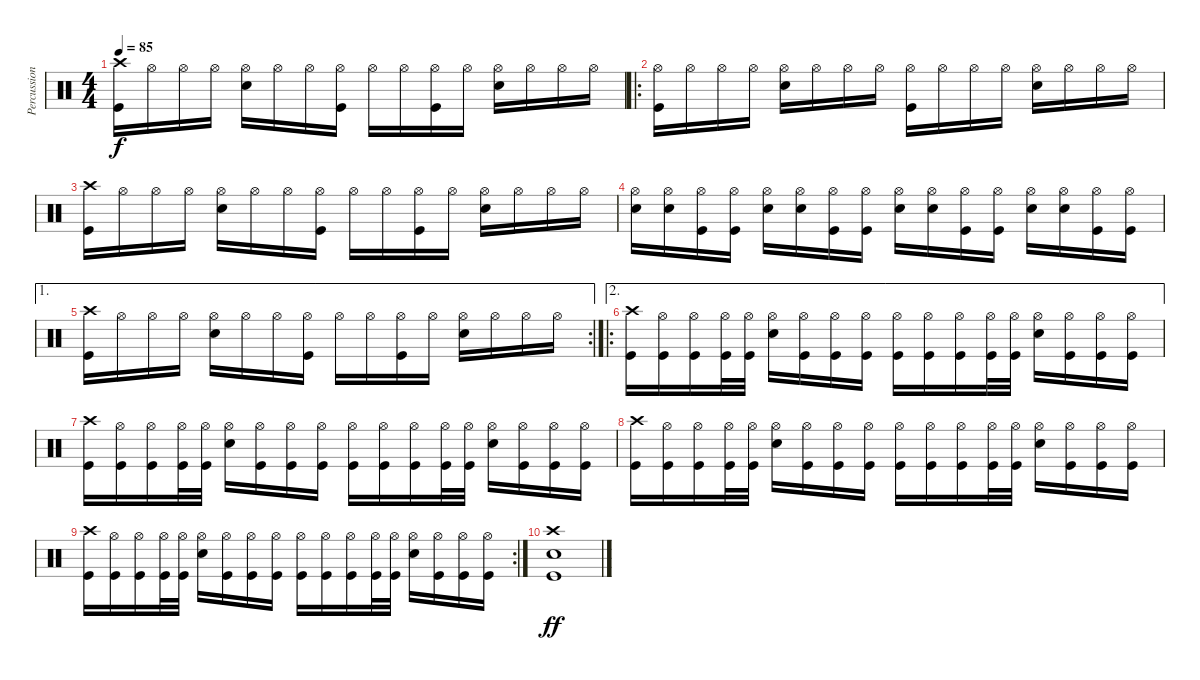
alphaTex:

\track ("Percussion" "Percussion") {instrument percussion}
\staff {score}
\articulation defaults
\ts (4 4)
\tempo 85
\clef neutral
\ks c
("Crash high (hit)" "Kick (hit)").16{dy f} "Hi-Hat (open)".16 "Hi-Hat (open)".16 "Hi-Hat (open)".16 ("Hi-Hat (open)" "Snare (hit) 2").16 "Hi-Hat (open)".16 "Hi-Hat (open)".16 ("Hi-Hat (open)" "Kick (hit)").16 "Hi-Hat (open)".16 "Hi-Hat (open)".16 ("Hi-Hat (open)" "Kick (hit)").16 "Hi-Hat (open)".16 ("Hi-Hat (open)" "Snare (hit) 2").16 "Hi-Hat (open)".16 "Hi-Hat (open)".16 "Hi-Hat (open)".16 |
\ro
("Hi-Hat (open)" "Kick (hit)").16 "Hi-Hat (open)".16 "Hi-Hat (open)".16 "Hi-Hat (open)".16 ("Hi-Hat (open)" "Snare (hit) 2").16 "Hi-Hat (open)".16 "Hi-Hat (open)".16 "Hi-Hat (open)".16 ("Hi-Hat (open)" "Kick (hit)").16 "Hi-Hat (open)".16 "Hi-Hat (open)".16 "Hi-Hat (open)".16 ("Hi-Hat (open)" "Snare (hit) 2").16 "Hi-Hat (open)".16 "Hi-Hat (open)".16 "Hi-Hat (open)".16 |
("Crash high (hit)" "Kick (hit)").16 "Hi-Hat (open)".16 "Hi-Hat (open)".16 "Hi-Hat (open)".16 ("Hi-Hat (open)" "Snare (hit) 2").16 "Hi-Hat (open)".16 "Hi-Hat (open)".16 ("Hi-Hat (open)" "Kick (hit)").16 "Hi-Hat (open)".16 "Hi-Hat (open)".16 ("Hi-Hat (open)" "Kick (hit)").16 "Hi-Hat (open)".16 ("Hi-Hat (open)" "Snare (hit) 2").16 "Hi-Hat (open)".16 "Hi-Hat (open)".16 "Hi-Hat (open)".16 |
("Hi-Hat (open)" "Snare (hit) 2").16 ("Hi-Hat (open)" "Snare (hit) 2").16 ("Hi-Hat (open)" "Kick (hit)").16 ("Hi-Hat (open)" "Kick (hit)").16 ("Hi-Hat (open)" "Snare (hit) 2").16 ("Hi-Hat (open)" "Snare (hit) 2").16 ("Hi-Hat (open)" "Kick (hit)").16 ("Hi-Hat (open)" "Kick (hit)").16 ("Hi-Hat (open)" "Snare (hit) 2").16 ("Hi-Hat (open)" "Snare (hit) 2").16 ("Hi-Hat (open)" "Kick (hit)").16 ("Hi-Hat (open)" "Kick (hit)").16 ("Hi-Hat (open)" "Snare (hit) 2").16 ("Hi-Hat (open)" "Snare (hit) 2").16 ("Hi-Hat (open)" "Kick (hit)").16 ("Hi-Hat (open)" "Kick (hit)").16 |
\ae 1
\rc 2
("Crash high (hit)" "Kick (hit)").16 "Hi-Hat (open)".16 "Hi-Hat (open)".16 "Hi-Hat (open)".16 ("Hi-Hat (open)" "Snare (hit) 2").16 "Hi-Hat (open)".16 "Hi-Hat (open)".16 ("Hi-Hat (open)" "Kick (hit)").16 "Hi-Hat (open)".16 "Hi-Hat (open)".16 ("Hi-Hat (open)" "Kick (hit)").16 "Hi-Hat (open)".16 ("Hi-Hat (open)" "Snare (hit) 2").16 "Hi-Hat (open)".16 "Hi-Hat (open)".16 "Hi-Hat (open)".16 |
\ae 2
\ro
("Crash high (hit)" "Kick (hit)").16 ("Hi-Hat (open)" "Kick (hit)").16 ("Hi-Hat (open)" "Kick (hit)").16 ("Hi-Hat (open)" "Kick (hit)").32 ("Hi-Hat (open)" "Kick (hit)").32 ("Hi-Hat (open)" "Snare (hit) 2").16 ("Hi-Hat (open)" "Kick (hit)").16 ("Hi-Hat (open)" "Kick (hit)").16 ("Hi-Hat (open)" "Kick (hit)").16 ("Hi-Hat (open)" "Kick (hit)").16 ("Hi-Hat (open)" "Kick (hit)").16 ("Hi-Hat (open)" "Kick (hit)").16 ("Hi-Hat (open)" "Kick (hit)").32 ("Hi-Hat (open)" "Kick (hit)").32 ("Hi-Hat (open)" "Snare (hit) 2").16 ("Hi-Hat (open)" "Kick (hit)").16 ("Hi-Hat (open)" "Kick (hit)").16 ("Hi-Hat (open)" "Kick (hit)").16 |
("Crash high (hit)" "Kick (hit)").16 ("Hi-Hat (open)" "Kick (hit)").16 ("Hi-Hat (open)" "Kick (hit)").16 ("Hi-Hat (open)" "Kick (hit)").32 ("Hi-Hat (open)" "Kick (hit)").32 ("Hi-Hat (open)" "Snare (hit) 2").16 ("Hi-Hat (open)" "Kick (hit)").16 ("Hi-Hat (open)" "Kick (hit)").16 ("Hi-Hat (open)" "Kick (hit)").16 ("Hi-Hat (open)" "Kick (hit)").16 ("Hi-Hat (open)" "Kick (hit)").16 ("Hi-Hat (open)" "Kick (hit)").16 ("Hi-Hat (open)" "Kick (hit)").32 ("Hi-Hat (open)" "Kick (hit)").32 ("Hi-Hat (open)" "Snare (hit) 2").16 ("Hi-Hat (open)" "Kick (hit)").16 ("Hi-Hat (open)" "Kick (hit)").16 ("Hi-Hat (open)" "Kick (hit)").16 |
("Crash high (hit)" "Kick (hit)").16 ("Hi-Hat (open)" "Kick (hit)").16 ("Hi-Hat (open)" "Kick (hit)").16 ("Hi-Hat (open)" "Kick (hit)").32 ("Hi-Hat (open)" "Kick (hit)").32 ("Hi-Hat (open)" "Snare (hit) 2").16 ("Hi-Hat (open)" "Kick (hit)").16 ("Hi-Hat (open)" "Kick (hit)").16 ("Hi-Hat (open)" "Kick (hit)").16 ("Hi-Hat (open)" "Kick (hit)").16 ("Hi-Hat (open)" "Kick (hit)").16 ("Hi-Hat (open)" "Kick (hit)").16 ("Hi-Hat (open)" "Kick (hit)").32 ("Hi-Hat (open)" "Kick (hit)").32 ("Hi-Hat (open)" "Snare (hit) 2").16 ("Hi-Hat (open)" "Kick (hit)").16 ("Hi-Hat (open)" "Kick (hit)").16 ("Hi-Hat (open)" "Kick (hit)").16 |
\rc 2
("Crash high (hit)" "Kick (hit)").16 ("Hi-Hat (open)" "Kick (hit)").16 ("Hi-Hat (open)" "Kick (hit)").16 ("Hi-Hat (open)" "Kick (hit)").32 ("Hi-Hat (open)" "Kick (hit)").32 ("Hi-Hat (open)" "Snare (hit) 2").16 ("Hi-Hat (open)" "Kick (hit)").16 ("Hi-Hat (open)" "Kick (hit)").16 ("Hi-Hat (open)" "Kick (hit)").16 ("Hi-Hat (open)" "Kick (hit)").16 ("Hi-Hat (open)" "Kick (hit)").16 ("Hi-Hat (open)" "Kick (hit)").16 ("Hi-Hat (open)" "Kick (hit)").32 ("Hi-Hat (open)" "Kick (hit)").32 ("Hi-Hat (open)" "Snare (hit) 2").16 ("Hi-Hat (open)" "Kick (hit)").16 ("Hi-Hat (open)" "Kick (hit)").16 ("Hi-Hat (open)" "Kick (hit)").16 |
("Crash high (hit)" "Kick (hit)" "Snare (hit) 2").1{dy ff}
